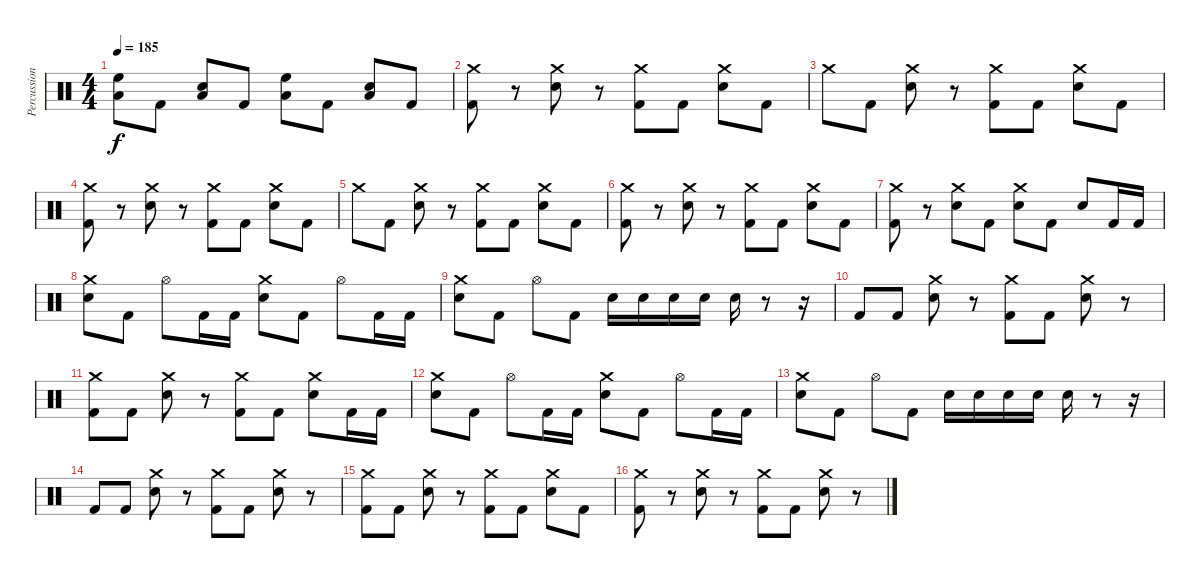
\track ("Percussion" "Percussion") {instrument percussion}
\staff {score}
\articulation defaults
\ts (4 4)
\tempo 185
\clef neutral
\ks c
("High Floor Tom (hit)" "Low Floor Tom (hit)").8{dy f} "Kick (hit) 2".8 ("Snare (hit) 2" "Low Floor Tom (hit)").8 "Kick (hit) 2".8 ("High Floor Tom (hit)" "Low Floor Tom (hit)").8 "Kick (hit) 2".8 ("Snare (hit) 2" "Low Floor Tom (hit)").8 "Kick (hit) 2".8 |
("Crash medium (hit)" "Kick (hit) 2").8 r.8 ("Crash medium (hit)" "Snare (hit) 2").8 r.8 ("Crash medium (hit)" "Kick (hit) 2").8 "Kick (hit) 2".8 ("Crash medium (hit)" "Snare (hit) 2").8 "Kick (hit) 2".8 |
"Crash medium (hit)".8 "Kick (hit) 2".8 ("Crash medium (hit)" "Snare (hit) 2").8 r.8 ("Crash medium (hit)" "Kick (hit) 2").8 "Kick (hit) 2".8 ("Crash medium (hit)" "Snare (hit) 2").8 "Kick (hit) 2".8 |
("Crash medium (hit)" "Kick (hit) 2").8 r.8 ("Crash medium (hit)" "Snare (hit) 2").8 r.8 ("Crash medium (hit)" "Kick (hit) 2").8 "Kick (hit) 2".8 ("Crash medium (hit)" "Snare (hit) 2").8 "Kick (hit) 2".8 |
"Crash medium (hit)".8 "Kick (hit) 2".8 ("Crash medium (hit)" "Snare (hit) 2").8 r.8 ("Crash medium (hit)" "Kick (hit) 2").8 "Kick (hit) 2".8 ("Crash medium (hit)" "Snare (hit) 2").8 "Kick (hit) 2".8 |
("Crash medium (hit)" "Kick (hit) 2").8 r.8 ("Crash medium (hit)" "Snare (hit) 2").8 r.8 ("Crash medium (hit)" "Kick (hit) 2").8 "Kick (hit) 2".8 ("Crash medium (hit)" "Snare (hit) 2").8 "Kick (hit) 2".8 |
("Crash medium (hit)" "Kick (hit) 2").8 r.8 ("Crash medium (hit)" "Snare (hit) 2").8 "Kick (hit) 2".8 ("Crash medium (hit)" "Snare (hit) 2").8 "Kick (hit) 2".8 "Snare (hit) 2".8 "Kick (hit) 2".16 "Kick (hit) 2".16 |
("Crash medium (hit)" "Snare (hit) 2").8 "Kick (hit) 2".8 "Hi-Hat (open)".8 "Kick (hit) 2".16 "Kick (hit) 2".16 ("Crash medium (hit)" "Snare (hit) 2").8 "Kick (hit) 2".8 "Hi-Hat (open)".8 "Kick (hit) 2".16 "Kick (hit) 2".16 |
("Crash medium (hit)" "Snare (hit) 2").8 "Kick (hit) 2".8 "Hi-Hat (open)".8 "Kick (hit) 2".8 "Snare (hit) 2".16 "Snare (hit) 2".16 "Snare (hit) 2".16 "Snare (hit) 2".16 "Snare (hit) 2".16 r.8 r.16 |
"Kick (hit) 2".8 "Kick (hit) 2".8 ("Crash medium (hit)" "Snare (hit) 2").8 r.8 ("Crash medium (hit)" "Kick (hit) 2").8 "Kick (hit) 2".8 ("Crash medium (hit)" "Snare (hit) 2").8 r.8 |
("Crash medium (hit)" "Kick (hit) 2").8 "Kick (hit) 2".8 ("Crash medium (hit)" "Snare (hit) 2").8 r.8 ("Crash medium (hit)" "Kick (hit) 2").8 "Kick (hit) 2".8 ("Crash medium (hit)" "Snare (hit) 2").8 "Kick (hit) 2".16 "Kick (hit) 2".16 |
("Crash medium (hit)" "Snare (hit) 2").8 "Kick (hit) 2".8 "Hi-Hat (open)".8 "Kick (hit) 2".16 "Kick (hit) 2".16 ("Crash medium (hit)" "Snare (hit) 2").8 "Kick (hit) 2".8 "Hi-Hat (open)".8 "Kick (hit) 2".16 "Kick (hit) 2".16 |
("Crash medium (hit)" "Snare (hit) 2").8 "Kick (hit) 2".8 "Hi-Hat (open)".8 "Kick (hit) 2".8 "Snare (hit) 2".16 "Snare (hit) 2".16 "Snare (hit) 2".16 "Snare (hit) 2".16 "Snare (hit) 2".16 r.8 r.16 |
"Kick (hit) 2".8 "Kick (hit) 2".8 ("Crash medium (hit)" "Snare (hit) 2").8 r.8 ("Crash medium (hit)" "Kick (hit) 2").8 "Kick (hit) 2".8 ("Crash medium (hit)" "Snare (hit) 2").8 r.8 |
("Crash medium (hit)" "Kick (hit) 2").8 "Kick (hit) 2".8 ("Crash medium (hit)" "Snare (hit) 2").8 r.8 ("Crash medium (hit)" "Kick (hit) 2").8 "Kick (hit) 2".8 ("Crash medium (hit)" "Snare (hit) 2").8 "Kick (hit) 2".8 |
("Crash medium (hit)" "Kick (hit) 2").8 r.8 ("Crash medium (hit)" "Snare (hit) 2").8 r.8 ("Crash medium (hit)" "Kick (hit) 2").8 "Kick (hit) 2".8 ("Crash medium (hit)" "Snare (hit) 2").8 r.8
